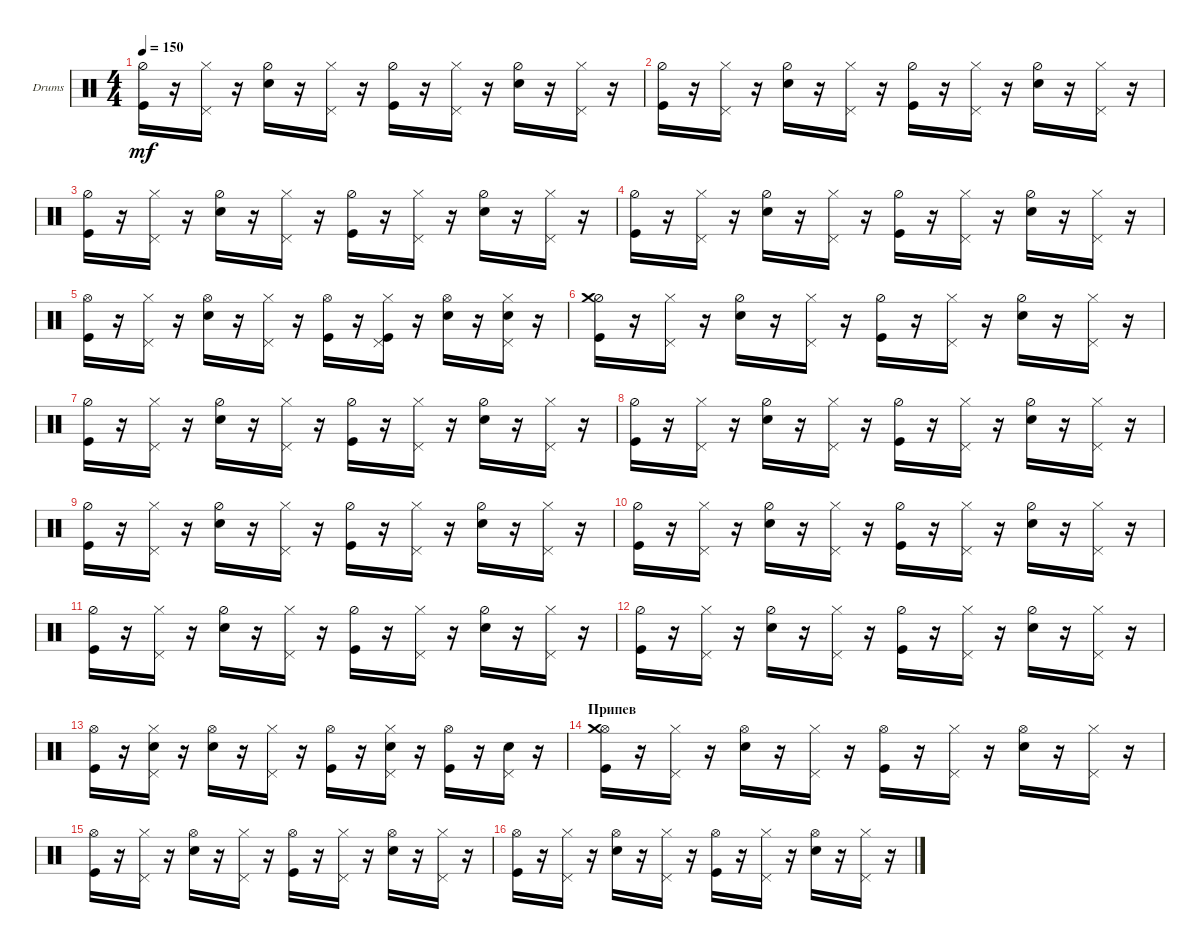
\bracketExtendMode groupsimilarinstruments
\firstSystemTrackNameOrientation horizontal
\otherSystemsTrackNameOrientation horizontal
\track ("Drumkit" "Drums") {solo instrument percussion}
\staff {score}
\articulation defaults
\ts (4 4)
\tempo 150
\clef neutral
\ks c
("Kick (hit)" "Hi-Hat (half)").16{dy mf} r.16 ("Hi-Hat (closed)" "Pedal Hi-Hat (hit)").16 r.16 ("Snare (hit) 2" "Hi-Hat (half)").16 r.16 ("Hi-Hat (closed)" "Pedal Hi-Hat (hit)").16 r.16 ("Kick (hit)" "Hi-Hat (half)").16 r.16 ("Hi-Hat (closed)" "Pedal Hi-Hat (hit)").16 r.16 ("Snare (hit) 2" "Hi-Hat (half)").16 r.16 ("Hi-Hat (closed)" "Pedal Hi-Hat (hit)").16 r.16 |
("Kick (hit)" "Hi-Hat (half)").16 r.16 ("Hi-Hat (closed)" "Pedal Hi-Hat (hit)").16 r.16 ("Snare (hit) 2" "Hi-Hat (half)").16 r.16 ("Hi-Hat (closed)" "Pedal Hi-Hat (hit)").16 r.16 ("Kick (hit)" "Hi-Hat (half)").16 r.16 ("Hi-Hat (closed)" "Pedal Hi-Hat (hit)").16 r.16 ("Snare (hit) 2" "Hi-Hat (half)").16 r.16 ("Hi-Hat (closed)" "Pedal Hi-Hat (hit)").16 r.16 |
("Kick (hit)" "Hi-Hat (half)").16 r.16 ("Hi-Hat (closed)" "Pedal Hi-Hat (hit)").16 r.16 ("Snare (hit) 2" "Hi-Hat (half)").16 r.16 ("Hi-Hat (closed)" "Pedal Hi-Hat (hit)").16 r.16 ("Kick (hit)" "Hi-Hat (half)").16 r.16 ("Hi-Hat (closed)" "Pedal Hi-Hat (hit)").16 r.16 ("Snare (hit) 2" "Hi-Hat (half)").16 r.16 ("Hi-Hat (closed)" "Pedal Hi-Hat (hit)").16 r.16 |
("Kick (hit)" "Hi-Hat (half)").16 r.16 ("Hi-Hat (closed)" "Pedal Hi-Hat (hit)").16 r.16 ("Snare (hit) 2" "Hi-Hat (half)").16 r.16 ("Hi-Hat (closed)" "Pedal Hi-Hat (hit)").16 r.16 ("Kick (hit)" "Hi-Hat (half)").16 r.16 ("Hi-Hat (closed)" "Pedal Hi-Hat (hit)").16 r.16 ("Snare (hit) 2" "Hi-Hat (half)").16 r.16 ("Hi-Hat (closed)" "Pedal Hi-Hat (hit)").16 r.16 |
("Kick (hit)" "Hi-Hat (open)").16 r.16 ("Hi-Hat (closed)" "Pedal Hi-Hat (hit)").16 r.16 ("Snare (hit) 2" "Hi-Hat (open)").16 r.16 ("Hi-Hat (closed)" "Pedal Hi-Hat (hit)").16 r.16 ("Kick (hit)" "Hi-Hat (open)").16 r.16 ("Hi-Hat (closed)" "Kick (hit)" "Pedal Hi-Hat (hit)").16 r.16 ("Snare (hit) 2" "Hi-Hat (open)").16 r.16 ("Hi-Hat (closed)" "Snare (hit) 2" "Pedal Hi-Hat (hit)").16 r.16 |
("Kick (hit)" "Hi-Hat (half)" "Crash medium (hit)").16 r.16 ("Pedal Hi-Hat (hit)" "Hi-Hat (closed)").16 r.16 ("Snare (hit) 2" "Hi-Hat (half)").16 r.16 ("Pedal Hi-Hat (hit)" "Hi-Hat (closed)").16 r.16 ("Kick (hit)" "Hi-Hat (half)").16 r.16 ("Hi-Hat (closed)" "Pedal Hi-Hat (hit)").16 r.16 ("Snare (hit) 2" "Hi-Hat (half)").16 r.16 ("Hi-Hat (closed)" "Pedal Hi-Hat (hit)").16 r.16 |
("Kick (hit)" "Hi-Hat (half)").16 r.16 ("Hi-Hat (closed)" "Pedal Hi-Hat (hit)").16 r.16 ("Snare (hit) 2" "Hi-Hat (half)").16 r.16 ("Hi-Hat (closed)" "Pedal Hi-Hat (hit)").16 r.16 ("Kick (hit)" "Hi-Hat (half)").16 r.16 ("Hi-Hat (closed)" "Pedal Hi-Hat (hit)").16 r.16 ("Snare (hit) 2" "Hi-Hat (half)").16 r.16 ("Hi-Hat (closed)" "Pedal Hi-Hat (hit)").16 r.16 |
("Kick (hit)" "Hi-Hat (half)").16 r.16 ("Hi-Hat (closed)" "Pedal Hi-Hat (hit)").16 r.16 ("Snare (hit) 2" "Hi-Hat (half)").16 r.16 ("Hi-Hat (closed)" "Pedal Hi-Hat (hit)").16 r.16 ("Kick (hit)" "Hi-Hat (half)").16 r.16 ("Hi-Hat (closed)" "Pedal Hi-Hat (hit)").16 r.16 ("Snare (hit) 2" "Hi-Hat (half)").16 r.16 ("Hi-Hat (closed)" "Pedal Hi-Hat (hit)").16 r.16 |
("Kick (hit)" "Hi-Hat (half)").16 r.16 ("Hi-Hat (closed)" "Pedal Hi-Hat (hit)").16 r.16 ("Snare (hit) 2" "Hi-Hat (half)").16 r.16 ("Hi-Hat (closed)" "Pedal Hi-Hat (hit)").16 r.16 ("Kick (hit)" "Hi-Hat (half)").16 r.16 ("Hi-Hat (closed)" "Pedal Hi-Hat (hit)").16 r.16 ("Snare (hit) 2" "Hi-Hat (half)").16 r.16 ("Hi-Hat (closed)" "Pedal Hi-Hat (hit)").16 r.16 |
("Kick (hit)" "Hi-Hat (half)").16 r.16 ("Hi-Hat (closed)" "Pedal Hi-Hat (hit)").16 r.16 ("Snare (hit) 2" "Hi-Hat (half)").16 r.16 ("Hi-Hat (closed)" "Pedal Hi-Hat (hit)").16 r.16 ("Kick (hit)" "Hi-Hat (half)").16 r.16 ("Hi-Hat (closed)" "Pedal Hi-Hat (hit)").16 r.16 ("Snare (hit) 2" "Hi-Hat (half)").16 r.16 ("Hi-Hat (closed)" "Pedal Hi-Hat (hit)").16 r.16 |
("Kick (hit)" "Hi-Hat (half)").16 r.16 ("Hi-Hat (closed)" "Pedal Hi-Hat (hit)").16 r.16 ("Snare (hit) 2" "Hi-Hat (half)").16 r.16 ("Hi-Hat (closed)" "Pedal Hi-Hat (hit)").16 r.16 ("Kick (hit)" "Hi-Hat (half)").16 r.16 ("Hi-Hat (closed)" "Pedal Hi-Hat (hit)").16 r.16 ("Snare (hit) 2" "Hi-Hat (half)").16 r.16 ("Hi-Hat (closed)" "Pedal Hi-Hat (hit)").16 r.16 |
("Kick (hit)" "Hi-Hat (half)").16 r.16 ("Hi-Hat (closed)" "Pedal Hi-Hat (hit)").16 r.16 ("Snare (hit) 2" "Hi-Hat (half)").16 r.16 ("Hi-Hat (closed)" "Pedal Hi-Hat (hit)").16 r.16 ("Kick (hit)" "Hi-Hat (half)").16 r.16 ("Hi-Hat (closed)" "Pedal Hi-Hat (hit)").16 r.16 ("Snare (hit) 2" "Hi-Hat (half)").16 r.16 ("Hi-Hat (closed)" "Pedal Hi-Hat (hit)").16 r.16 |
("Kick (hit)" "Hi-Hat (open)").16 r.16 ("Hi-Hat (closed)" "Snare (hit) 2" "Pedal Hi-Hat (hit)").16 r.16 ("Snare (hit) 2" "Hi-Hat (open)").16 r.16 ("Hi-Hat (closed)" "Pedal Hi-Hat (hit)").16 r.16 ("Kick (hit)" "Hi-Hat (open)").16 r.16 ("Hi-Hat (closed)" "Snare (hit) 2" "Pedal Hi-Hat (hit)").16 r.16 ("Hi-Hat (open)" "Kick (hit)").16 r.16 ("Snare (hit) 2" "Pedal Hi-Hat (hit)").16 r.16 |
\section ("" "Припев")
("Kick (hit)" "Hi-Hat (open)" "Crash medium (hit)").16 r.16 ("Pedal Hi-Hat (hit)" "Hi-Hat (closed)").16 r.16 ("Snare (hit) 2" "Hi-Hat (open)").16 r.16 ("Pedal Hi-Hat (hit)" "Hi-Hat (closed)").16 r.16 ("Kick (hit)" "Hi-Hat (open)").16 r.16 ("Hi-Hat (closed)" "Pedal Hi-Hat (hit)").16 r.16 ("Snare (hit) 2" "Hi-Hat (open)").16 r.16 ("Hi-Hat (closed)" "Pedal Hi-Hat (hit)").16 r.16 |
("Kick (hit)" "Hi-Hat (open)").16 r.16 ("Hi-Hat (closed)" "Pedal Hi-Hat (hit)").16 r.16 ("Snare (hit) 2" "Hi-Hat (open)").16 r.16 ("Hi-Hat (closed)" "Pedal Hi-Hat (hit)").16 r.16 ("Kick (hit)" "Hi-Hat (open)").16 r.16 ("Hi-Hat (closed)" "Pedal Hi-Hat (hit)").16 r.16 ("Snare (hit) 2" "Hi-Hat (open)").16 r.16 ("Hi-Hat (closed)" "Pedal Hi-Hat (hit)").16 r.16 |
("Kick (hit)" "Hi-Hat (open)").16 r.16 ("Hi-Hat (closed)" "Pedal Hi-Hat (hit)").16 r.16 ("Snare (hit) 2" "Hi-Hat (open)").16 r.16 ("Hi-Hat (closed)" "Pedal Hi-Hat (hit)").16 r.16 ("Kick (hit)" "Hi-Hat (open)").16 r.16 ("Hi-Hat (closed)" "Pedal Hi-Hat (hit)").16 r.16 ("Snare (hit) 2" "Hi-Hat (open)").16 r.16 ("Hi-Hat (closed)" "Pedal Hi-Hat (hit)").16 r.16
